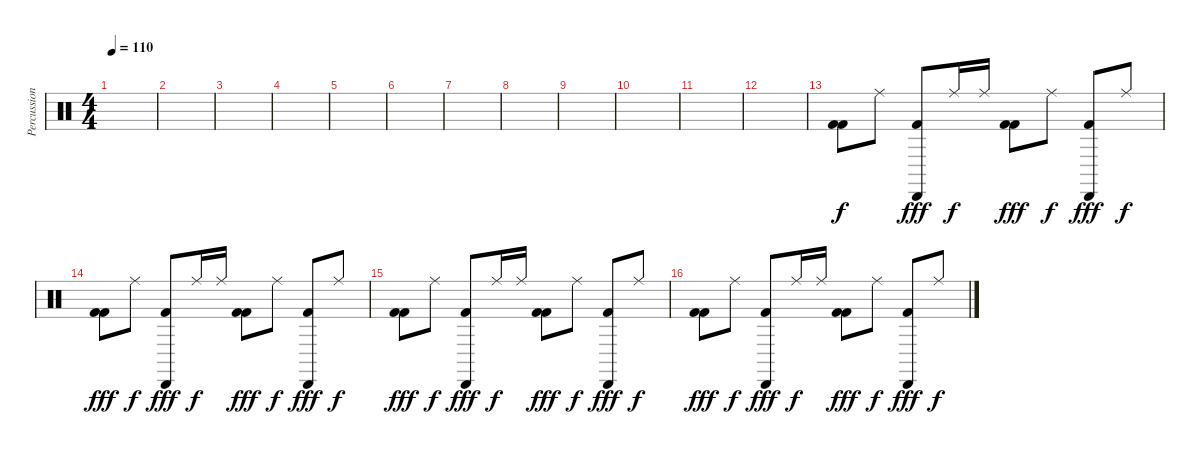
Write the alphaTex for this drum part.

\track ("Percussion" "Percussion") {instrument percussion}
\staff {score}
\articulation defaults
\ts (4 4)
\tempo 110
\clef neutral
\ks c
|
|
|
|
|
|
|
|
|
|
|
|
("Kick (hit) 2" "Kick (hit) 2").8 "Ride (middle)".8{dy f} ("Kick (hit) 2" "Cabasa (hit)").8{dy fff} "Ride (middle)".16{dy f} "Ride (middle)".16 ("Kick (hit) 2" "Kick (hit) 2").8{dy fff} "Ride (middle)".8{dy f} ("Kick (hit) 2" "Cabasa (hit)").8{dy fff} "Ride (middle)".8{dy f} |
("Kick (hit) 2" "Kick (hit) 2").8{dy fff} "Ride (middle)".8{dy f} ("Kick (hit) 2" "Cabasa (hit)").8{dy fff} "Ride (middle)".16{dy f} "Ride (middle)".16 ("Kick (hit) 2" "Kick (hit) 2").8{dy fff} "Ride (middle)".8{dy f} ("Kick (hit) 2" "Cabasa (hit)").8{dy fff} "Ride (middle)".8{dy f} |
("Kick (hit) 2" "Kick (hit) 2").8{dy fff} "Ride (middle)".8{dy f} ("Kick (hit) 2" "Cabasa (hit)").8{dy fff} "Ride (middle)".16{dy f} "Ride (middle)".16 ("Kick (hit) 2" "Kick (hit) 2").8{dy fff} "Ride (middle)".8{dy f} ("Kick (hit) 2" "Cabasa (hit)").8{dy fff} "Ride (middle)".8{dy f} |
("Kick (hit) 2" "Kick (hit) 2").8{dy fff} "Ride (middle)".8{dy f} ("Kick (hit) 2" "Cabasa (hit)").8{dy fff} "Ride (middle)".16{dy f} "Ride (middle)".16 ("Kick (hit) 2" "Kick (hit) 2").8{dy fff} "Ride (middle)".8{dy f} ("Kick (hit) 2" "Cabasa (hit)").8{dy fff} "Ride (middle)".8{dy f}
